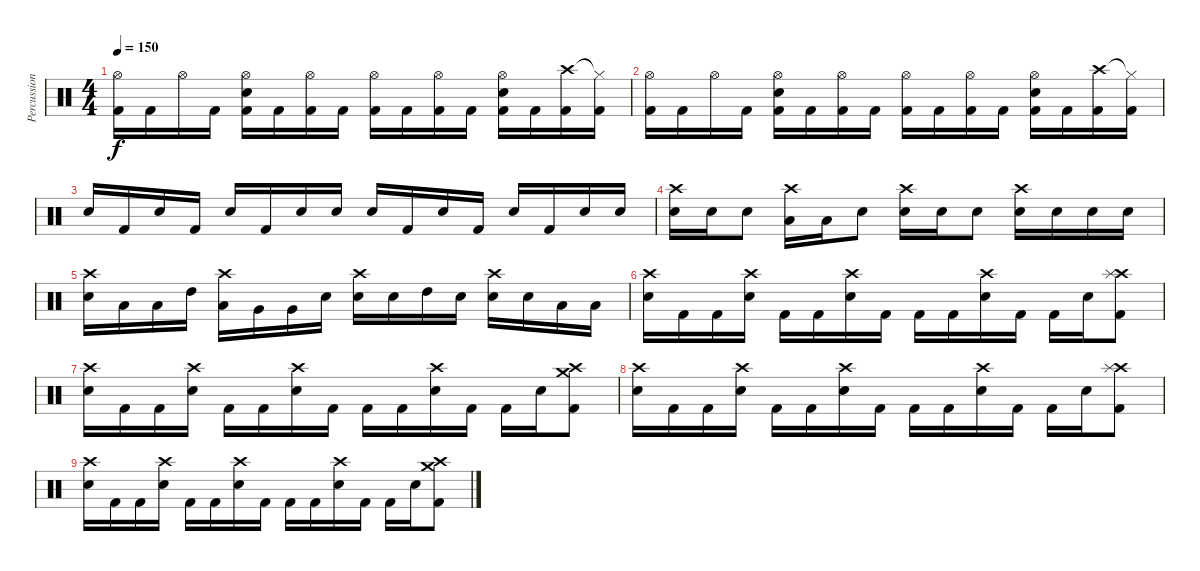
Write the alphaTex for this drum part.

\track ("Percussion" "Percussion") {instrument percussion}
\staff {score}
\articulation defaults
\ts (4 4)
\tempo 150
\clef neutral
\ks c
("Hi-Hat (open)" "Kick (hit) 2").16{dy f} "Kick (hit) 2".16 "Hi-Hat (open)".16 "Kick (hit) 2".16 ("Hi-Hat (open)" "Electric Snare (hit)" "Kick (hit) 2").16 "Kick (hit) 2".16 ("Hi-Hat (open)" "Kick (hit) 2").16 "Kick (hit) 2".16 ("Hi-Hat (open)" "Kick (hit) 2").16 "Kick (hit) 2".16 ("Hi-Hat (open)" "Kick (hit) 2").16 "Kick (hit) 2".16 ("Hi-Hat (open)" "Electric Snare (hit)" "Kick (hit) 2").16 "Kick (hit) 2".16 ("Crash high (hit)" "Kick (hit) 2").16 ("Hi-Hat (closed)"{t} "Kick (hit) 2").16 |
("Hi-Hat (open)" "Kick (hit) 2").16 "Kick (hit) 2".16 "Hi-Hat (open)".16 "Kick (hit) 2".16 ("Hi-Hat (open)" "Electric Snare (hit)" "Kick (hit) 2").16 "Kick (hit) 2".16 ("Hi-Hat (open)" "Kick (hit) 2").16 "Kick (hit) 2".16 ("Hi-Hat (open)" "Kick (hit) 2").16 "Kick (hit) 2".16 ("Hi-Hat (open)" "Kick (hit) 2").16 "Kick (hit) 2".16 ("Hi-Hat (open)" "Electric Snare (hit)" "Kick (hit) 2").16 "Kick (hit) 2".16 ("Crash high (hit)" "Kick (hit) 2").16 ("Hi-Hat (closed)"{t} "Kick (hit) 2").16 |
"Electric Snare (hit)".16 "Kick (hit) 2".16 "Electric Snare (hit)".16 "Kick (hit) 2".16 "Electric Snare (hit)".16 "Kick (hit) 2".16 "Electric Snare (hit)".16 "Electric Snare (hit)".16 "Electric Snare (hit)".16 "Kick (hit) 2".16 "Electric Snare (hit)".16 "Kick (hit) 2".16 "Electric Snare (hit)".16 "Kick (hit) 2".16 "Electric Snare (hit)".16 "Electric Snare (hit)".16 |
("Crash high (hit)" "Electric Snare (hit)").16 "Electric Snare (hit)".16 "Electric Snare (hit)".8 ("Crash high (hit)" "Low Tom (hit)").16 "Low Tom (hit)".16 "Electric Snare (hit)".8 ("Crash high (hit)" "Electric Snare (hit)").16 "Electric Snare (hit)".16 "Electric Snare (hit)".8 ("Crash high (hit)" "Electric Snare (hit)").16 "Electric Snare (hit)".16 "Electric Snare (hit)".16 "Electric Snare (hit)".16 |
("Crash high (hit)" "Electric Snare (hit)").16 "Low Tom (hit)".16 "Low Tom (hit)".16 "High Tom (hit)".16 ("Crash high (hit)" "Low Tom (hit)").16 "Very Low Tom (hit)".16 "Very Low Tom (hit)".16 "Electric Snare (hit)".16 ("Crash high (hit)" "Electric Snare (hit)").16 "Electric Snare (hit)".16 "High Tom (hit)".16 "Electric Snare (hit)".16 ("Crash high (hit)" "Electric Snare (hit)").16 "Electric Snare (hit)".16 "Low Tom (hit)".16 "Low Tom (hit)".16 |
("Crash high (hit)" "Electric Snare (hit)").16 "Kick (hit) 2".16 "Kick (hit) 2".16 ("Crash high (hit)" "Electric Snare (hit)").16 "Kick (hit) 2".16 "Kick (hit) 2".16 ("Crash high (hit)" "Electric Snare (hit)").16 "Kick (hit) 2".16 "Kick (hit) 2".16 "Kick (hit) 2".16 ("Crash high (hit)" "Electric Snare (hit)").16 "Kick (hit) 2".16 "Kick (hit) 2".16 "Electric Snare (hit)".16 ("Crash high (hit)" "Splash (hit)" "Kick (hit) 2").8 |
("Crash high (hit)" "Electric Snare (hit)").16 "Kick (hit) 2".16 "Kick (hit) 2".16 ("Crash high (hit)" "Electric Snare (hit)").16 "Kick (hit) 2".16 "Kick (hit) 2".16 ("Crash high (hit)" "Electric Snare (hit)").16 "Kick (hit) 2".16 "Kick (hit) 2".16 "Kick (hit) 2".16 ("Crash high (hit)" "Electric Snare (hit)").16 "Kick (hit) 2".16 "Kick (hit) 2".16 "Electric Snare (hit)".16 ("Crash high (hit)" "Crash medium (hit)" "Kick (hit) 2").8 |
("Crash high (hit)" "Electric Snare (hit)").16 "Kick (hit) 2".16 "Kick (hit) 2".16 ("Crash high (hit)" "Electric Snare (hit)").16 "Kick (hit) 2".16 "Kick (hit) 2".16 ("Crash high (hit)" "Electric Snare (hit)").16 "Kick (hit) 2".16 "Kick (hit) 2".16 "Kick (hit) 2".16 ("Crash high (hit)" "Electric Snare (hit)").16 "Kick (hit) 2".16 "Kick (hit) 2".16 "Electric Snare (hit)".16 ("Crash high (hit)" "Splash (hit)" "Kick (hit) 2").8 |
("Crash high (hit)" "Electric Snare (hit)").16 "Kick (hit) 2".16 "Kick (hit) 2".16 ("Crash high (hit)" "Electric Snare (hit)").16 "Kick (hit) 2".16 "Kick (hit) 2".16 ("Crash high (hit)" "Electric Snare (hit)").16 "Kick (hit) 2".16 "Kick (hit) 2".16 "Kick (hit) 2".16 ("Crash high (hit)" "Electric Snare (hit)").16 "Kick (hit) 2".16 "Kick (hit) 2".16 "Electric Snare (hit)".16 ("Crash high (hit)" "Crash medium (hit)" "Kick (hit) 2").8
